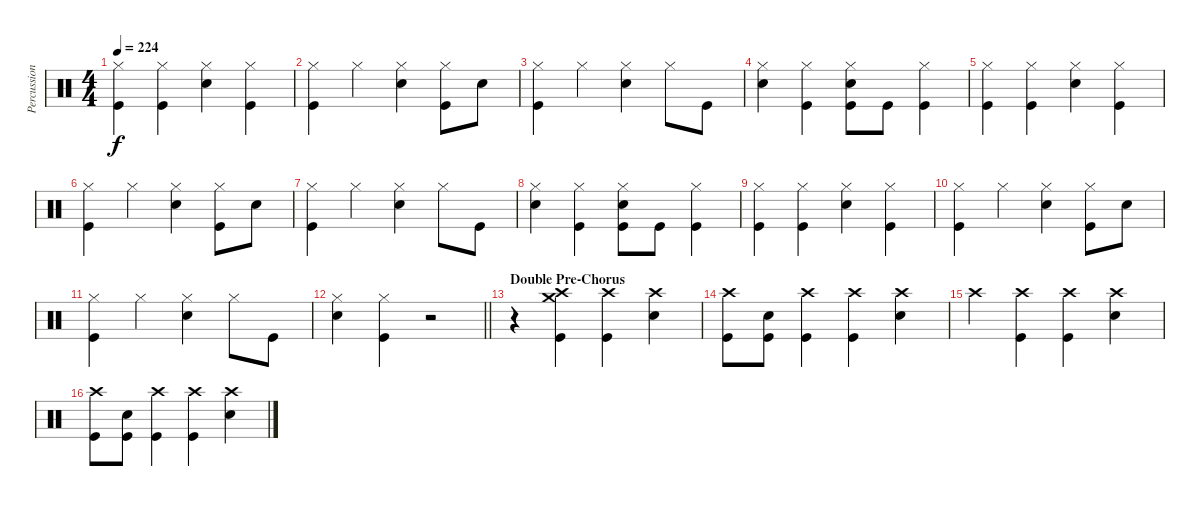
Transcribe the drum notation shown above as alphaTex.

\track ("Percussion" "Percussion") {instrument percussion}
\staff {score}
\articulation defaults
\ts (4 4)
\tempo 224
\clef neutral
\ks c
("Hi-Hat (closed)" "Kick (hit)").4{dy f} ("Hi-Hat (closed)" "Kick (hit)").4 ("Hi-Hat (closed)" "Electric Snare (hit)").4 ("Hi-Hat (closed)" "Kick (hit)").4 |
("Hi-Hat (closed)" "Kick (hit)").4 "Hi-Hat (closed)".4 ("Hi-Hat (closed)" "Electric Snare (hit)").4 ("Hi-Hat (closed)" "Kick (hit)").8 "Electric Snare (hit)".8 |
("Hi-Hat (closed)" "Kick (hit)").4 "Hi-Hat (closed)".4 ("Hi-Hat (closed)" "Electric Snare (hit)").4 "Hi-Hat (closed)".8 "Kick (hit)".8 |
("Hi-Hat (closed)" "Electric Snare (hit)").4 ("Hi-Hat (closed)" "Kick (hit)").4 ("Hi-Hat (closed)" "Electric Snare (hit)" "Kick (hit)").8 "Kick (hit)".8 ("Hi-Hat (closed)" "Kick (hit)").4 |
("Hi-Hat (closed)" "Kick (hit)").4 ("Hi-Hat (closed)" "Kick (hit)").4 ("Hi-Hat (closed)" "Electric Snare (hit)").4 ("Hi-Hat (closed)" "Kick (hit)").4 |
("Hi-Hat (closed)" "Kick (hit)").4 "Hi-Hat (closed)".4 ("Hi-Hat (closed)" "Electric Snare (hit)").4 ("Hi-Hat (closed)" "Kick (hit)").8 "Electric Snare (hit)".8 |
("Hi-Hat (closed)" "Kick (hit)").4 "Hi-Hat (closed)".4 ("Hi-Hat (closed)" "Electric Snare (hit)").4 "Hi-Hat (closed)".8 "Kick (hit)".8 |
("Hi-Hat (closed)" "Electric Snare (hit)").4 ("Hi-Hat (closed)" "Kick (hit)").4 ("Hi-Hat (closed)" "Electric Snare (hit)" "Kick (hit)").8 "Kick (hit)".8 ("Hi-Hat (closed)" "Kick (hit)").4 |
("Hi-Hat (closed)" "Kick (hit)").4 ("Hi-Hat (closed)" "Kick (hit)").4 ("Hi-Hat (closed)" "Electric Snare (hit)").4 ("Hi-Hat (closed)" "Kick (hit)").4 |
("Hi-Hat (closed)" "Kick (hit)").4 "Hi-Hat (closed)".4 ("Hi-Hat (closed)" "Electric Snare (hit)").4 ("Hi-Hat (closed)" "Kick (hit)").8 "Electric Snare (hit)".8 |
("Hi-Hat (closed)" "Kick (hit)").4 "Hi-Hat (closed)".4 ("Hi-Hat (closed)" "Electric Snare (hit)").4 "Hi-Hat (closed)".8 "Kick (hit)".8 |
\barLineRight lightlight
("Hi-Hat (closed)" "Electric Snare (hit)").4 ("Hi-Hat (closed)" "Kick (hit)").4 r.2 |
\section ("" "Double Pre-Chorus")
r.4 ("Crash high (hit)" "Crash medium (hit)" "Kick (hit)").4 ("Crash high (hit)" "Kick (hit)").4 ("Crash high (hit)" "Electric Snare (hit)").4 |
("Crash high (hit)" "Kick (hit)").8 ("Electric Snare (hit)" "Kick (hit)").8 ("Crash high (hit)" "Kick (hit)").4 ("Crash high (hit)" "Kick (hit)").4 ("Crash high (hit)" "Electric Snare (hit)").4 |
"Crash high (hit)".4 ("Crash high (hit)" "Kick (hit)").4 ("Crash high (hit)" "Kick (hit)").4 ("Crash high (hit)" "Electric Snare (hit)").4 |
("Crash high (hit)" "Kick (hit)").8 ("Electric Snare (hit)" "Kick (hit)").8 ("Crash high (hit)" "Kick (hit)").4 ("Crash high (hit)" "Kick (hit)").4 ("Crash high (hit)" "Electric Snare (hit)").4
